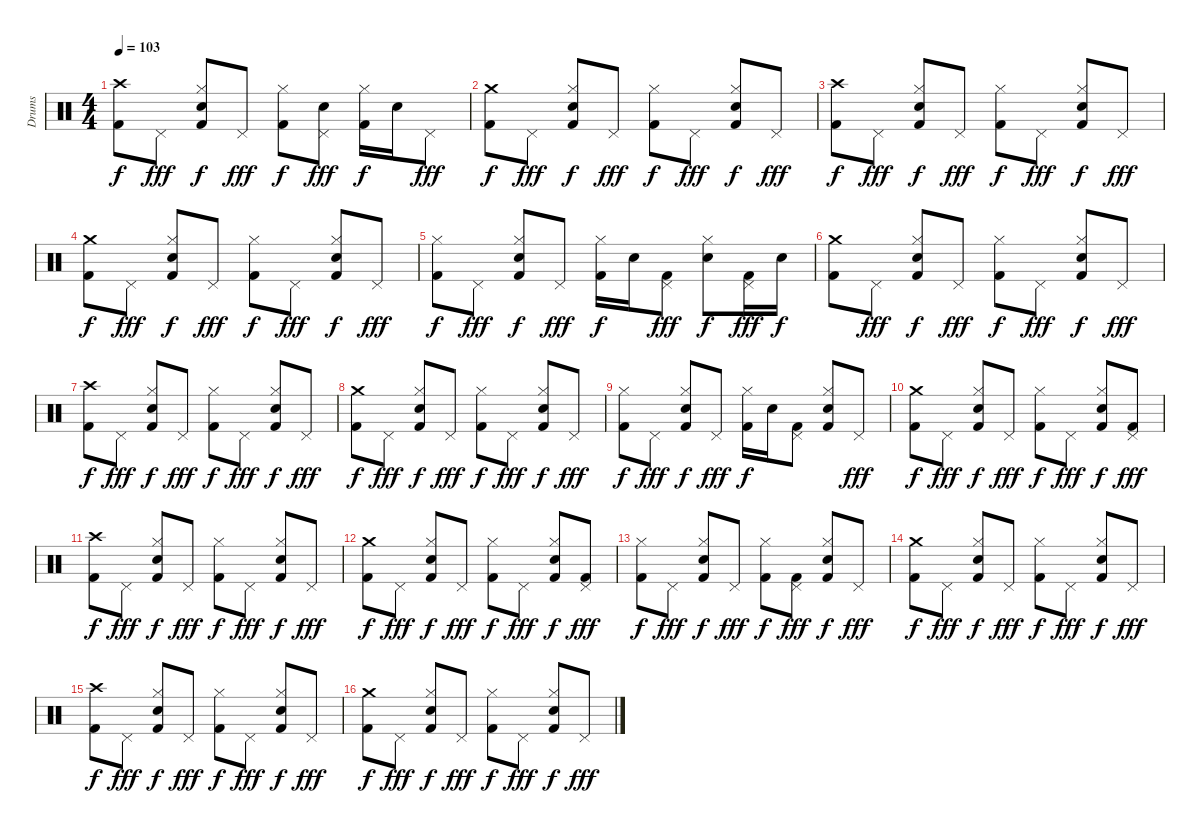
\track ("Drums" "Drums") {instrument percussion}
\staff {score}
\articulation defaults
\ts (4 4)
\tempo 103
\clef neutral
\ks c
("Kick (hit) 2" "Crash high (hit)").8{dy f} "Pedal Hi-Hat (hit)".8{dy fff} ("Kick (hit) 2" "Hi-Hat (closed)" "Snare (hit) 2").8{dy f} "Pedal Hi-Hat (hit)".8{dy fff} ("Kick (hit) 2" "Hi-Hat (closed)").8{dy f} ("Pedal Hi-Hat (hit)" "Snare (hit) 2").8{dy fff} ("Kick (hit) 2" "Hi-Hat (closed)").16{dy f} "Snare (hit) 2".16 "Pedal Hi-Hat (hit)".8{dy fff} |
("Kick (hit) 2" "Crash medium (hit)").8{dy f} "Pedal Hi-Hat (hit)".8{dy fff} ("Kick (hit) 2" "Hi-Hat (closed)" "Snare (hit) 2").8{dy f} "Pedal Hi-Hat (hit)".8{dy fff} ("Kick (hit) 2" "Hi-Hat (closed)").8{dy f} "Pedal Hi-Hat (hit)".8{dy fff} ("Kick (hit) 2" "Hi-Hat (closed)" "Snare (hit) 2").8{dy f} "Pedal Hi-Hat (hit)".8{dy fff} |
("Kick (hit) 2" "Crash high (hit)").8{dy f} "Pedal Hi-Hat (hit)".8{dy fff} ("Kick (hit) 2" "Hi-Hat (closed)" "Snare (hit) 2").8{dy f} "Pedal Hi-Hat (hit)".8{dy fff} ("Kick (hit) 2" "Hi-Hat (closed)").8{dy f} "Pedal Hi-Hat (hit)".8{dy fff} ("Kick (hit) 2" "Hi-Hat (closed)" "Snare (hit) 2").8{dy f} "Pedal Hi-Hat (hit)".8{dy fff} |
("Kick (hit) 2" "Crash medium (hit)").8{dy f} "Pedal Hi-Hat (hit)".8{dy fff} ("Kick (hit) 2" "Hi-Hat (closed)" "Snare (hit) 2").8{dy f} "Pedal Hi-Hat (hit)".8{dy fff} ("Kick (hit) 2" "Hi-Hat (closed)").8{dy f} "Pedal Hi-Hat (hit)".8{dy fff} ("Kick (hit) 2" "Hi-Hat (closed)" "Snare (hit) 2").8{dy f} "Pedal Hi-Hat (hit)".8{dy fff} |
("Kick (hit) 2" "Hi-Hat (closed)").8{dy f} "Pedal Hi-Hat (hit)".8{dy fff} ("Kick (hit) 2" "Hi-Hat (closed)" "Snare (hit) 2").8{dy f} "Pedal Hi-Hat (hit)".8{dy fff} ("Kick (hit) 2" "Hi-Hat (closed)").16{dy f} "Snare (hit) 2".16 ("Kick (hit) 2" "Pedal Hi-Hat (hit)").8{dy fff} ("Hi-Hat (closed)" "Snare (hit) 2").8{dy f} ("Kick (hit) 2" "Pedal Hi-Hat (hit)").16{dy fff} "Snare (hit) 2".16{dy f} |
("Kick (hit) 2" "Crash medium (hit)").8 "Pedal Hi-Hat (hit)".8{dy fff} ("Kick (hit) 2" "Hi-Hat (closed)" "Snare (hit) 2").8{dy f} "Pedal Hi-Hat (hit)".8{dy fff} ("Kick (hit) 2" "Hi-Hat (closed)").8{dy f} "Pedal Hi-Hat (hit)".8{dy fff} ("Kick (hit) 2" "Hi-Hat (closed)" "Snare (hit) 2").8{dy f} "Pedal Hi-Hat (hit)".8{dy fff} |
("Kick (hit) 2" "Crash high (hit)").8{dy f} "Pedal Hi-Hat (hit)".8{dy fff} ("Kick (hit) 2" "Hi-Hat (closed)" "Snare (hit) 2").8{dy f} "Pedal Hi-Hat (hit)".8{dy fff} ("Kick (hit) 2" "Hi-Hat (closed)").8{dy f} "Pedal Hi-Hat (hit)".8{dy fff} ("Kick (hit) 2" "Hi-Hat (closed)" "Snare (hit) 2").8{dy f} "Pedal Hi-Hat (hit)".8{dy fff} |
("Kick (hit) 2" "Crash medium (hit)").8{dy f} "Pedal Hi-Hat (hit)".8{dy fff} ("Kick (hit) 2" "Hi-Hat (closed)" "Snare (hit) 2").8{dy f} "Pedal Hi-Hat (hit)".8{dy fff} ("Kick (hit) 2" "Hi-Hat (closed)").8{dy f} "Pedal Hi-Hat (hit)".8{dy fff} ("Kick (hit) 2" "Hi-Hat (closed)" "Snare (hit) 2").8{dy f} "Pedal Hi-Hat (hit)".8{dy fff} |
("Kick (hit) 2" "Hi-Hat (closed)").8{dy f} "Pedal Hi-Hat (hit)".8{dy fff} ("Kick (hit) 2" "Hi-Hat (closed)" "Snare (hit) 2").8{dy f} "Pedal Hi-Hat (hit)".8{dy fff} ("Kick (hit) 2" "Hi-Hat (closed)").16{dy f} "Snare (hit) 2".16 ("Kick (hit) 2" "Pedal Hi-Hat (hit)").8 ("Kick (hit) 2" "Hi-Hat (closed)" "Snare (hit) 2").8 "Pedal Hi-Hat (hit)".8{dy fff} |
("Kick (hit) 2" "Crash medium (hit)").8{dy f} "Pedal Hi-Hat (hit)".8{dy fff} ("Kick (hit) 2" "Hi-Hat (closed)" "Snare (hit) 2").8{dy f} "Pedal Hi-Hat (hit)".8{dy fff} ("Kick (hit) 2" "Hi-Hat (closed)").8{dy f} "Pedal Hi-Hat (hit)".8{dy fff} ("Kick (hit) 2" "Hi-Hat (closed)" "Snare (hit) 2").8{dy f} ("Kick (hit) 2" "Pedal Hi-Hat (hit)").8{dy fff} |
("Kick (hit) 2" "Crash high (hit)").8{dy f} "Pedal Hi-Hat (hit)".8{dy fff} ("Kick (hit) 2" "Hi-Hat (closed)" "Snare (hit) 2").8{dy f} "Pedal Hi-Hat (hit)".8{dy fff} ("Kick (hit) 2" "Hi-Hat (closed)").8{dy f} "Pedal Hi-Hat (hit)".8{dy fff} ("Kick (hit) 2" "Hi-Hat (closed)" "Snare (hit) 2").8{dy f} "Pedal Hi-Hat (hit)".8{dy fff} |
("Kick (hit) 2" "Crash medium (hit)").8{dy f} "Pedal Hi-Hat (hit)".8{dy fff} ("Kick (hit) 2" "Hi-Hat (closed)" "Snare (hit) 2").8{dy f} "Pedal Hi-Hat (hit)".8{dy fff} ("Kick (hit) 2" "Hi-Hat (closed)").8{dy f} "Pedal Hi-Hat (hit)".8{dy fff} ("Kick (hit) 2" "Hi-Hat (closed)" "Snare (hit) 2").8{dy f} ("Kick (hit) 2" "Pedal Hi-Hat (hit)").8{dy fff} |
("Kick (hit) 2" "Hi-Hat (closed)").8{dy f} "Pedal Hi-Hat (hit)".8{dy fff} ("Kick (hit) 2" "Hi-Hat (closed)" "Snare (hit) 2").8{dy f} "Pedal Hi-Hat (hit)".8{dy fff} ("Kick (hit) 2" "Hi-Hat (closed)").8{dy f} ("Kick (hit) 2" "Pedal Hi-Hat (hit)").8{dy fff} ("Kick (hit) 2" "Hi-Hat (closed)" "Snare (hit) 2").8{dy f} "Pedal Hi-Hat (hit)".8{dy fff} |
("Kick (hit) 2" "Crash medium (hit)").8{dy f} "Pedal Hi-Hat (hit)".8{dy fff} ("Kick (hit) 2" "Hi-Hat (closed)" "Snare (hit) 2").8{dy f} "Pedal Hi-Hat (hit)".8{dy fff} ("Kick (hit) 2" "Hi-Hat (closed)").8{dy f} "Pedal Hi-Hat (hit)".8{dy fff} ("Kick (hit) 2" "Hi-Hat (closed)" "Snare (hit) 2").8{dy f} "Pedal Hi-Hat (hit)".8{dy fff} |
("Kick (hit) 2" "Crash high (hit)").8{dy f} "Pedal Hi-Hat (hit)".8{dy fff} ("Kick (hit) 2" "Hi-Hat (closed)" "Snare (hit) 2").8{dy f} "Pedal Hi-Hat (hit)".8{dy fff} ("Kick (hit) 2" "Hi-Hat (closed)").8{dy f} "Pedal Hi-Hat (hit)".8{dy fff} ("Kick (hit) 2" "Hi-Hat (closed)" "Snare (hit) 2").8{dy f} "Pedal Hi-Hat (hit)".8{dy fff} |
("Kick (hit) 2" "Crash medium (hit)").8{dy f} "Pedal Hi-Hat (hit)".8{dy fff} ("Kick (hit) 2" "Hi-Hat (closed)" "Snare (hit) 2").8{dy f} "Pedal Hi-Hat (hit)".8{dy fff} ("Kick (hit) 2" "Hi-Hat (closed)").8{dy f} "Pedal Hi-Hat (hit)".8{dy fff} ("Kick (hit) 2" "Hi-Hat (closed)" "Snare (hit) 2").8{dy f} "Pedal Hi-Hat (hit)".8{dy fff}
